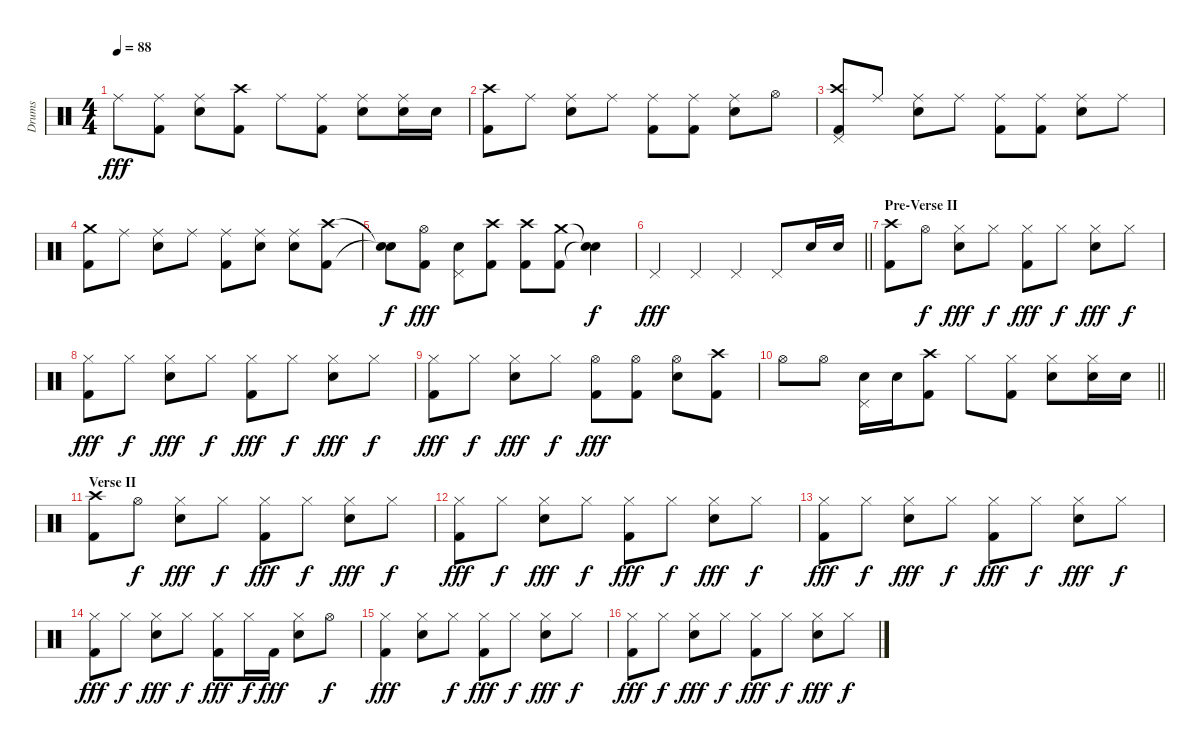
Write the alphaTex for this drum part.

\track ("Drums" "Drums") {instrument percussion}
\staff {score}
\articulation defaults
\ts (4 4)
\tempo 88
\clef neutral
\ks c "Ride (middle)".8{dy fff}
("Ride (middle)" "Kick (hit) 2").8 ("Ride (middle)" "Snare (hit) 2").8 ("Crash high (hit)" "Kick (hit) 2").8 "Ride (middle)".8 ("Ride (middle)" "Kick (hit) 2").8 ("Ride (middle)" "Snare (hit) 2").8 ("Ride (middle)" "Snare (hit) 2").16 "Snare (hit) 2".16 |
("Crash high (hit)" "Kick (hit) 2").8 "Ride (middle)".8 ("Ride (middle)" "Snare (hit) 2").8 "Ride (middle)".8 ("Ride (middle)" "Kick (hit) 2").8 ("Ride (middle)" "Kick (hit) 2").8 ("Ride (middle)" "Snare (hit) 2").8 "Hi-Hat (open)".8 |
("Pedal Hi-Hat (hit)" "Crash high (hit)" "Kick (hit) 2").8 "Ride (middle)".8 ("Ride (middle)" "Snare (hit) 2").8 "Ride (middle)".8 ("Ride (middle)" "Kick (hit) 2").8 ("Ride (middle)" "Kick (hit) 2").8 ("Ride (middle)" "Snare (hit) 2").8 "Ride (middle)".8 |
("Crash medium (hit)" "Kick (hit) 2").8 "Ride (middle)".8 ("Ride (middle)" "Snare (hit) 2").8 "Ride (middle)".8 ("Ride (middle)" "Kick (hit) 2").8 ("Ride (middle)" "Snare (hit) 2").8 ("Ride (middle)" "Snare (hit) 2").8 ("Crash high (hit)" "Kick (hit) 2").8 |
("Snare (hit)"{t} "Snare (hit)"{t}).8{dy f} ("Hi-Hat (open)" "Kick (hit) 2").8{dy fff} ("Pedal Hi-Hat (hit)" "Snare (hit) 2").8 ("Crash high (hit)" "Kick (hit) 2").8 ("Crash high (hit)" "Kick (hit) 2").8 ("Crash medium (hit)" "Kick (hit) 2").8 ("Snare (hit)"{t} "Snare (hit)"{t}).4{dy f} |
\barLineRight lightlight "Pedal Hi-Hat (hit)".4{dy fff} "Pedal Hi-Hat (hit)".4 "Pedal Hi-Hat (hit)".4 "Pedal Hi-Hat (hit)".8 "Snare (hit) 2".16 "Snare (hit) 2".16
|
\section ("" "Pre-Verse II")
("Crash high (hit)" "Kick (hit) 2").8 "Hi-Hat (open)".8{dy f} ("Hi-Hat (closed)" "Snare (hit) 2").8{dy fff} "Hi-Hat (closed)".8{dy f} ("Hi-Hat (closed)" "Kick (hit) 2").8{dy fff} "Hi-Hat (closed)".8{dy f} ("Hi-Hat (closed)" "Snare (hit) 2").8{dy fff} "Hi-Hat (closed)".8{dy f} |
("Hi-Hat (closed)" "Kick (hit) 2").8{dy fff} "Hi-Hat (closed)".8{dy f} ("Hi-Hat (closed)" "Snare (hit) 2").8{dy fff} "Hi-Hat (closed)".8{dy f} ("Hi-Hat (closed)" "Kick (hit) 2").8{dy fff} "Hi-Hat (closed)".8{dy f} ("Hi-Hat (closed)" "Snare (hit) 2").8{dy fff} "Hi-Hat (closed)".8{dy f} |
("Hi-Hat (closed)" "Kick (hit) 2").8{dy fff} "Hi-Hat (closed)".8{dy f} ("Hi-Hat (closed)" "Snare (hit) 2").8{dy fff} "Hi-Hat (closed)".8{dy f} ("Hi-Hat (open)" "Kick (hit) 2").8{dy fff} ("Hi-Hat (open)" "Kick (hit) 2").8 ("Hi-Hat (open)" "Snare (hit) 2").8 ("Crash high (hit)" "Kick (hit) 2").8 |
\barLineRight lightlight "Hi-Hat (open)".8 "Hi-Hat (open)".8
("Pedal Hi-Hat (hit)" "Snare (hit) 2").16 "Snare (hit) 2".16 ("Crash high (hit)" "Kick (hit) 2").8 "Hi-Hat (closed)".8 ("Hi-Hat (closed)" "Kick (hit) 2").8 ("Hi-Hat (closed)" "Snare (hit) 2").8 ("Hi-Hat (closed)" "Snare (hit) 2").16 "Snare (hit) 2".16 |
\section ("" "Verse II")
("Crash high (hit)" "Kick (hit) 2").8 "Hi-Hat (open)".8{dy f} ("Hi-Hat (closed)" "Snare (hit) 2").8{dy fff} "Hi-Hat (closed)".8{dy f} ("Hi-Hat (closed)" "Kick (hit) 2").8{dy fff} "Hi-Hat (closed)".8{dy f} ("Hi-Hat (closed)" "Snare (hit) 2").8{dy fff} "Hi-Hat (closed)".8{dy f} |
("Hi-Hat (closed)" "Kick (hit) 2").8{dy fff} "Hi-Hat (closed)".8{dy f} ("Hi-Hat (closed)" "Snare (hit) 2").8{dy fff} "Hi-Hat (closed)".8{dy f} ("Hi-Hat (closed)" "Kick (hit) 2").8{dy fff} "Hi-Hat (closed)".8{dy f} ("Hi-Hat (closed)" "Snare (hit) 2").8{dy fff} "Hi-Hat (closed)".8{dy f} |
("Hi-Hat (closed)" "Kick (hit) 2").8{dy fff} "Hi-Hat (closed)".8{dy f} ("Hi-Hat (closed)" "Snare (hit) 2").8{dy fff} "Hi-Hat (closed)".8{dy f} ("Hi-Hat (closed)" "Kick (hit) 2").8{dy fff} "Hi-Hat (closed)".8{dy f} ("Hi-Hat (closed)" "Snare (hit) 2").8{dy fff} "Hi-Hat (closed)".8{dy f} |
("Hi-Hat (closed)" "Kick (hit) 2").8{dy fff} "Hi-Hat (closed)".8{dy f} ("Hi-Hat (closed)" "Snare (hit) 2").8{dy fff} "Hi-Hat (closed)".8{dy f} ("Hi-Hat (closed)" "Kick (hit) 2").8{dy fff} "Hi-Hat (closed)".16{dy f} "Kick (hit) 2".16{dy fff} ("Hi-Hat (closed)" "Snare (hit) 2").8 "Hi-Hat (open)".8{dy f} |
("Hi-Hat (closed)" "Kick (hit) 2").4{dy fff} ("Hi-Hat (closed)" "Snare (hit) 2").8 "Hi-Hat (closed)".8{dy f} ("Hi-Hat (closed)" "Kick (hit) 2").8{dy fff} "Hi-Hat (closed)".8{dy f} ("Hi-Hat (closed)" "Snare (hit) 2").8{dy fff} "Hi-Hat (closed)".8{dy f} |
("Hi-Hat (closed)" "Kick (hit) 2").8{dy fff} "Hi-Hat (closed)".8{dy f} ("Hi-Hat (closed)" "Snare (hit) 2").8{dy fff} "Hi-Hat (closed)".8{dy f} ("Hi-Hat (closed)" "Kick (hit) 2").8{dy fff} "Hi-Hat (closed)".8{dy f} ("Hi-Hat (closed)" "Snare (hit) 2").8{dy fff} "Hi-Hat (closed)".8{dy f}
